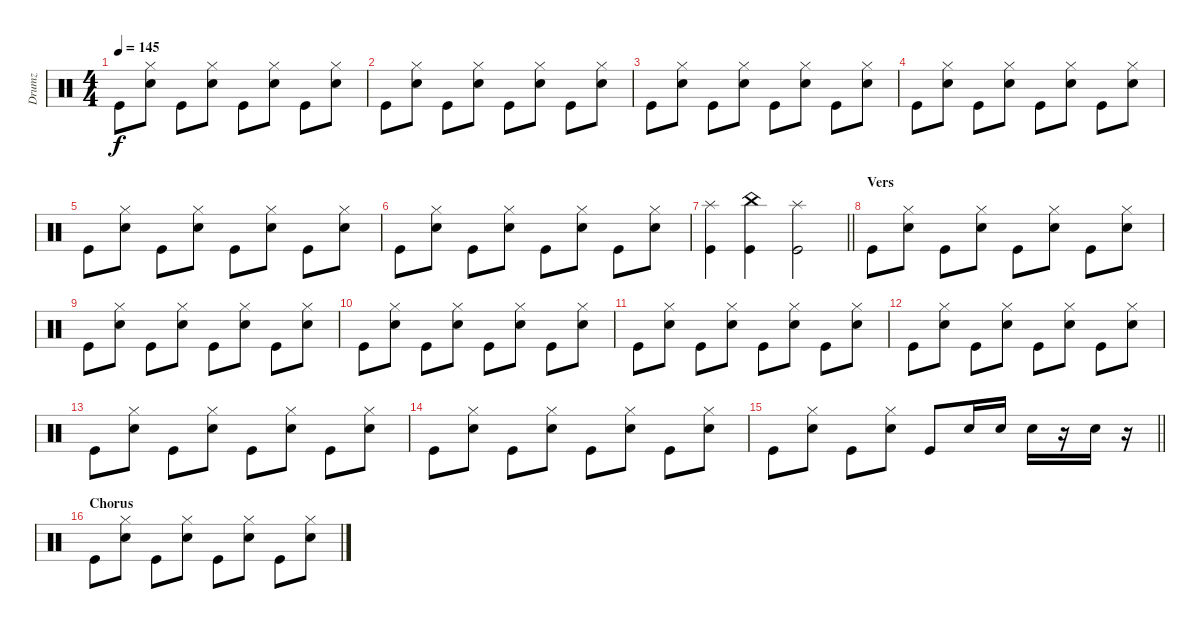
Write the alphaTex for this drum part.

\track ("Drumz" "Drumz") {instrument percussion}
\staff {score}
\articulation defaults
\ts (4 4)
\tempo 145
\clef neutral
\ks c "Kick (hit)".8{dy f}
("Hi-Hat (closed)" "Snare (hit) 2").8 "Kick (hit)".8 ("Hi-Hat (closed)" "Snare (hit) 2").8 "Kick (hit)".8 ("Hi-Hat (closed)" "Snare (hit) 2").8 "Kick (hit)".8 ("Hi-Hat (closed)" "Snare (hit) 2").8 |
"Kick (hit)".8 ("Hi-Hat (closed)" "Snare (hit) 2").8 "Kick (hit)".8 ("Hi-Hat (closed)" "Snare (hit) 2").8 "Kick (hit)".8 ("Hi-Hat (closed)" "Snare (hit) 2").8 "Kick (hit)".8 ("Hi-Hat (closed)" "Snare (hit) 2").8 |
"Kick (hit)".8 ("Hi-Hat (closed)" "Snare (hit) 2").8 "Kick (hit)".8 ("Hi-Hat (closed)" "Snare (hit) 2").8 "Kick (hit)".8 ("Hi-Hat (closed)" "Snare (hit) 2").8 "Kick (hit)".8 ("Hi-Hat (closed)" "Snare (hit) 2").8 |
"Kick (hit)".8 ("Hi-Hat (closed)" "Snare (hit) 2").8 "Kick (hit)".8 ("Hi-Hat (closed)" "Snare (hit) 2").8 "Kick (hit)".8 ("Hi-Hat (closed)" "Snare (hit) 2").8 "Kick (hit)".8 ("Hi-Hat (closed)" "Snare (hit) 2").8 |
"Kick (hit)".8 ("Hi-Hat (closed)" "Snare (hit) 2").8 "Kick (hit)".8 ("Hi-Hat (closed)" "Snare (hit) 2").8 "Kick (hit)".8 ("Hi-Hat (closed)" "Snare (hit) 2").8 "Kick (hit)".8 ("Hi-Hat (closed)" "Snare (hit) 2").8 |
"Kick (hit)".8 ("Hi-Hat (closed)" "Snare (hit) 2").8 "Kick (hit)".8 ("Hi-Hat (closed)" "Snare (hit) 2").8 "Kick (hit)".8 ("Hi-Hat (closed)" "Snare (hit) 2").8 "Kick (hit)".8 ("Hi-Hat (closed)" "Snare (hit) 2").8 |
\barLineRight lightlight
("Kick (hit)" "Splash (hit)").4 ("Kick (hit)" "China (hit)").4 ("Kick (hit)" "Splash (hit)").2 |
\section ("" "Vers")
"Kick (hit)".8 ("Hi-Hat (closed)" "Snare (hit) 2").8 "Kick (hit)".8 ("Hi-Hat (closed)" "Snare (hit) 2").8 "Kick (hit)".8 ("Hi-Hat (closed)" "Snare (hit) 2").8 "Kick (hit)".8 ("Hi-Hat (closed)" "Snare (hit) 2").8 |
"Kick (hit)".8 ("Hi-Hat (closed)" "Snare (hit) 2").8 "Kick (hit)".8 ("Hi-Hat (closed)" "Snare (hit) 2").8 "Kick (hit)".8 ("Hi-Hat (closed)" "Snare (hit) 2").8 "Kick (hit)".8 ("Hi-Hat (closed)" "Snare (hit) 2").8 |
"Kick (hit)".8 ("Hi-Hat (closed)" "Snare (hit) 2").8 "Kick (hit)".8 ("Hi-Hat (closed)" "Snare (hit) 2").8 "Kick (hit)".8 ("Hi-Hat (closed)" "Snare (hit) 2").8 "Kick (hit)".8 ("Hi-Hat (closed)" "Snare (hit) 2").8 |
"Kick (hit)".8 ("Hi-Hat (closed)" "Snare (hit) 2").8 "Kick (hit)".8 ("Hi-Hat (closed)" "Snare (hit) 2").8 "Kick (hit)".8 ("Hi-Hat (closed)" "Snare (hit) 2").8 "Kick (hit)".8 ("Hi-Hat (closed)" "Snare (hit) 2").8 |
"Kick (hit)".8 ("Hi-Hat (closed)" "Snare (hit) 2").8 "Kick (hit)".8 ("Hi-Hat (closed)" "Snare (hit) 2").8 "Kick (hit)".8 ("Hi-Hat (closed)" "Snare (hit) 2").8 "Kick (hit)".8 ("Hi-Hat (closed)" "Snare (hit) 2").8 |
"Kick (hit)".8 ("Hi-Hat (closed)" "Snare (hit) 2").8 "Kick (hit)".8 ("Hi-Hat (closed)" "Snare (hit) 2").8 "Kick (hit)".8 ("Hi-Hat (closed)" "Snare (hit) 2").8 "Kick (hit)".8 ("Hi-Hat (closed)" "Snare (hit) 2").8 |
"Kick (hit)".8 ("Hi-Hat (closed)" "Snare (hit) 2").8 "Kick (hit)".8 ("Hi-Hat (closed)" "Snare (hit) 2").8 "Kick (hit)".8 ("Hi-Hat (closed)" "Snare (hit) 2").8 "Kick (hit)".8 ("Hi-Hat (closed)" "Snare (hit) 2").8 |
\barLineRight lightlight "Kick (hit)".8
("Hi-Hat (closed)" "Snare (hit) 2").8 "Kick (hit)".8 ("Hi-Hat (closed)" "Snare (hit) 2").8 "Kick (hit)".8 "Snare (hit) 2".16 "Snare (hit) 2".16 "Snare (hit) 2".16 r.16 "Snare (hit) 2".16 r.16 |
\section ("" "Chorus")
"Kick (hit)".8 ("Hi-Hat (closed)" "Snare (hit) 2").8 "Kick (hit)".8 ("Hi-Hat (closed)" "Snare (hit) 2").8 "Kick (hit)".8 ("Hi-Hat (closed)" "Snare (hit) 2").8 "Kick (hit)".8 ("Hi-Hat (closed)" "Snare (hit) 2").8
